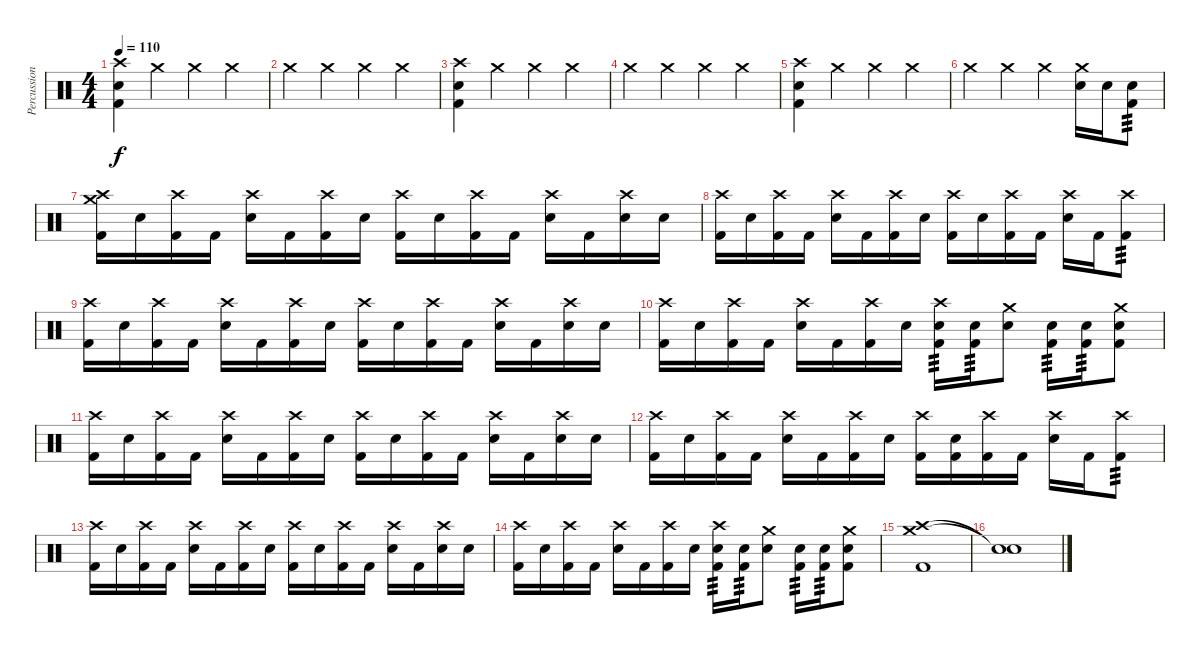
\track ("Percussion" "Percussion") {instrument percussion}
\staff {score}
\articulation defaults
\ts (4 4)
\tempo 110
\clef neutral
\ks c
("Crash high (hit)" "Electric Snare (hit)" "Kick (hit) 2").4{dy f} "Crash medium (hit)".4 "Crash medium (hit)".4 "Crash medium (hit)".4 |
"Crash medium (hit)".4 "Crash medium (hit)".4 "Crash medium (hit)".4 "Crash medium (hit)".4 |
("Crash high (hit)" "Electric Snare (hit)" "Kick (hit) 2").4 "Crash medium (hit)".4 "Crash medium (hit)".4 "Crash medium (hit)".4 |
"Crash medium (hit)".4 "Crash medium (hit)".4 "Crash medium (hit)".4 "Crash medium (hit)".4 |
("Crash high (hit)" "Electric Snare (hit)" "Kick (hit) 2").4 "Crash medium (hit)".4 "Crash medium (hit)".4 "Crash medium (hit)".4 |
"Crash medium (hit)".4 "Crash medium (hit)".4 "Crash medium (hit)".4 ("Crash medium (hit)" "Electric Snare (hit)").16 "Electric Snare (hit)".16 ("Electric Snare (hit)" "Kick (hit) 2").8{tp 3} |
("Crash high (hit)" "Crash medium (hit)" "Kick (hit) 2").16 "Electric Snare (hit)".16 ("Crash high (hit)" "Kick (hit) 2").16 "Kick (hit) 2".16 ("Crash high (hit)" "Electric Snare (hit)").16 "Kick (hit) 2".16 ("Crash high (hit)" "Kick (hit) 2").16 "Electric Snare (hit)".16 ("Crash high (hit)" "Kick (hit) 2").16 "Electric Snare (hit)".16 ("Crash high (hit)" "Kick (hit) 2").16 "Kick (hit) 2".16 ("Crash high (hit)" "Electric Snare (hit)").16 "Kick (hit) 2".16 ("Crash high (hit)" "Electric Snare (hit)").16 "Electric Snare (hit)".16 |
("Crash high (hit)" "Kick (hit) 2").16 "Electric Snare (hit)".16 ("Crash high (hit)" "Kick (hit) 2").16 "Kick (hit) 2".16 ("Crash high (hit)" "Electric Snare (hit)").16 "Kick (hit) 2".16 ("Crash high (hit)" "Kick (hit) 2").16 "Electric Snare (hit)".16 ("Crash high (hit)" "Kick (hit) 2").16 "Electric Snare (hit)".16 ("Crash high (hit)" "Kick (hit) 2").16 "Kick (hit) 2".16 ("Crash high (hit)" "Electric Snare (hit)").16 "Kick (hit) 2".16 ("Crash high (hit)" "Kick (hit) 2").8{tp 3} |
("Crash high (hit)" "Kick (hit) 2").16 "Electric Snare (hit)".16 ("Crash high (hit)" "Kick (hit) 2").16 "Kick (hit) 2".16 ("Crash high (hit)" "Electric Snare (hit)").16 "Kick (hit) 2".16 ("Crash high (hit)" "Kick (hit) 2").16 "Electric Snare (hit)".16 ("Crash high (hit)" "Kick (hit) 2").16 "Electric Snare (hit)".16 ("Crash high (hit)" "Kick (hit) 2").16 "Kick (hit) 2".16 ("Crash high (hit)" "Electric Snare (hit)").16 "Kick (hit) 2".16 ("Crash high (hit)" "Electric Snare (hit)").16 "Electric Snare (hit)".16 |
("Crash high (hit)" "Kick (hit) 2").16 "Electric Snare (hit)".16 ("Crash high (hit)" "Kick (hit) 2").16 "Kick (hit) 2".16 ("Crash high (hit)" "Electric Snare (hit)").16 "Kick (hit) 2".16 ("Crash high (hit)" "Kick (hit) 2").16 "Electric Snare (hit)".16 ("Crash high (hit)" "Electric Snare (hit)" "Kick (hit) 2").16{tp 3} ("Electric Snare (hit)" "Kick (hit) 2").16{tp 3} ("Crash medium (hit)" "Electric Snare (hit)").8 ("Electric Snare (hit)" "Kick (hit) 2").16{tp 3} ("Electric Snare (hit)" "Kick (hit) 2").16{tp 3} ("Crash medium (hit)" "Electric Snare (hit)" "Kick (hit) 2").8 |
("Crash high (hit)" "Kick (hit) 2").16 "Electric Snare (hit)".16 ("Crash high (hit)" "Kick (hit) 2").16 "Kick (hit) 2".16 ("Crash high (hit)" "Electric Snare (hit)").16 "Kick (hit) 2".16 ("Crash high (hit)" "Kick (hit) 2").16 "Electric Snare (hit)".16 ("Crash high (hit)" "Kick (hit) 2").16 "Electric Snare (hit)".16 ("Crash high (hit)" "Kick (hit) 2").16 "Kick (hit) 2".16 ("Crash high (hit)" "Electric Snare (hit)").16 "Kick (hit) 2".16 ("Crash high (hit)" "Electric Snare (hit)").16 "Electric Snare (hit)".16 |
("Crash high (hit)" "Kick (hit) 2").16 "Electric Snare (hit)".16 ("Crash high (hit)" "Kick (hit) 2").16 "Kick (hit) 2".16 ("Crash high (hit)" "Electric Snare (hit)").16 "Kick (hit) 2".16 ("Crash high (hit)" "Kick (hit) 2").16 "Electric Snare (hit)".16 ("Crash high (hit)" "Kick (hit) 2").16 ("Electric Snare (hit)" "Kick (hit) 2").16 ("Crash high (hit)" "Kick (hit) 2").16 "Kick (hit) 2".16 ("Crash high (hit)" "Electric Snare (hit)").16 "Kick (hit) 2".16 ("Crash high (hit)" "Kick (hit) 2").8{tp 3} |
("Crash high (hit)" "Kick (hit) 2").16 "Electric Snare (hit)".16 ("Crash high (hit)" "Kick (hit) 2").16 "Kick (hit) 2".16 ("Crash high (hit)" "Electric Snare (hit)").16 "Kick (hit) 2".16 ("Crash high (hit)" "Kick (hit) 2").16 "Electric Snare (hit)".16 ("Crash high (hit)" "Kick (hit) 2").16 "Electric Snare (hit)".16 ("Crash high (hit)" "Kick (hit) 2").16 "Kick (hit) 2".16 ("Crash high (hit)" "Electric Snare (hit)").16 "Kick (hit) 2".16 ("Crash high (hit)" "Electric Snare (hit)").16 "Electric Snare (hit)".16 |
("Crash high (hit)" "Kick (hit) 2").16 "Electric Snare (hit)".16 ("Crash high (hit)" "Kick (hit) 2").16 "Kick (hit) 2".16 ("Crash high (hit)" "Electric Snare (hit)").16 "Kick (hit) 2".16 ("Crash high (hit)" "Kick (hit) 2").16 "Electric Snare (hit)".16 ("Crash high (hit)" "Electric Snare (hit)" "Kick (hit) 2").16{tp 3} ("Electric Snare (hit)" "Kick (hit) 2").16{tp 3} ("Crash medium (hit)" "Electric Snare (hit)").8 ("Electric Snare (hit)" "Kick (hit) 2").16{tp 3} ("Electric Snare (hit)" "Kick (hit) 2").16{tp 3} ("Crash medium (hit)" "Electric Snare (hit)" "Kick (hit) 2").8 |
("Crash high (hit)" "Crash medium (hit)" "Kick (hit) 2").1 |
("Snare (hit)"{t} "Snare (hit)"{t}).1
